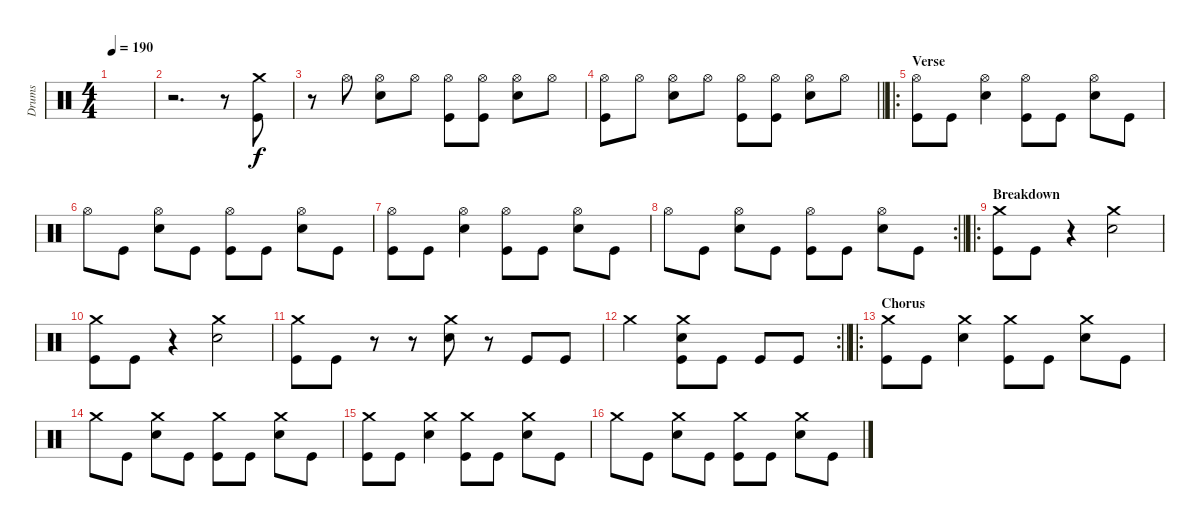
\track ("Drums" "Drums") {instrument percussion}
\staff {score}
\articulation defaults
\ts (4 4)
\tempo 190
\clef neutral
\ks c
|
r.2{d} r.8 ("Crash medium (hit)" "Kick (hit)").8 |
r.8 "Hi-Hat (open)".8 ("Hi-Hat (open)" "Snare (hit) 2").8 "Hi-Hat (open)".8 ("Hi-Hat (open)" "Kick (hit)").8 ("Hi-Hat (open)" "Kick (hit)").8 ("Hi-Hat (open)" "Snare (hit) 2").8 "Hi-Hat (open)".8 |
\barLineRight lightlight
("Hi-Hat (open)" "Kick (hit)").8 "Hi-Hat (open)".8 ("Hi-Hat (open)" "Snare (hit) 2").8 "Hi-Hat (open)".8 ("Hi-Hat (open)" "Kick (hit)").8 ("Hi-Hat (open)" "Kick (hit)").8 ("Hi-Hat (open)" "Snare (hit) 2").8 "Hi-Hat (open)".8 |
\ro
\section ("" "Verse")
("Hi-Hat (open)" "Kick (hit)").8 "Kick (hit)".8 ("Hi-Hat (open)" "Snare (hit) 2").4 ("Hi-Hat (open)" "Kick (hit)").8 "Kick (hit)".8 ("Hi-Hat (open)" "Snare (hit) 2").8 "Kick (hit)".8 |
"Hi-Hat (open)".8 "Kick (hit)".8 ("Hi-Hat (open)" "Snare (hit) 2").8 "Kick (hit)".8 ("Hi-Hat (open)" "Kick (hit)").8 "Kick (hit)".8 ("Hi-Hat (open)" "Snare (hit) 2").8 "Kick (hit)".8 |
("Hi-Hat (open)" "Kick (hit)").8 "Kick (hit)".8 ("Hi-Hat (open)" "Snare (hit) 2").4 ("Hi-Hat (open)" "Kick (hit)").8 "Kick (hit)".8 ("Hi-Hat (open)" "Snare (hit) 2").8 "Kick (hit)".8 |
\rc 2
\barLineRight lightlight "Hi-Hat (open)".8 "Kick (hit)".8
("Hi-Hat (open)" "Snare (hit) 2").8 "Kick (hit)".8 ("Hi-Hat (open)" "Kick (hit)").8 "Kick (hit)".8 ("Hi-Hat (open)" "Snare (hit) 2").8 "Kick (hit)".8 |
\ro
\section ("" "Breakdown")
("Crash medium (hit)" "Kick (hit)").8 "Kick (hit)".8 r.4 ("Crash medium (hit)" "Snare (hit) 2").2 |
("Crash medium (hit)" "Kick (hit)").8 "Kick (hit)".8 r.4 ("Crash medium (hit)" "Snare (hit) 2").2 |
("Crash medium (hit)" "Kick (hit)").8 "Kick (hit)".8 r.8 r.8 ("Crash medium (hit)" "Snare (hit) 2").8 r.8 "Kick (hit)".8 "Kick (hit)".8 |
\rc 2
\barLineRight lightlight "Crash medium (hit)".2
("Crash medium (hit)" "Snare (hit) 2" "Kick (hit)").8 "Kick (hit)".8 "Kick (hit)".8 "Kick (hit)".8 |
\ro
\section ("" "Chorus")
("Crash medium (hit)" "Kick (hit)").8 "Kick (hit)".8 ("Crash medium (hit)" "Snare (hit) 2").4 ("Crash medium (hit)" "Kick (hit)").8 "Kick (hit)".8 ("Crash medium (hit)" "Snare (hit) 2").8 "Kick (hit)".8 |
"Crash medium (hit)".8 "Kick (hit)".8 ("Crash medium (hit)" "Snare (hit) 2").8 "Kick (hit)".8 ("Crash medium (hit)" "Kick (hit)").8 "Kick (hit)".8 ("Crash medium (hit)" "Snare (hit) 2").8 "Kick (hit)".8 |
("Crash medium (hit)" "Kick (hit)").8 "Kick (hit)".8 ("Crash medium (hit)" "Snare (hit) 2").4 ("Crash medium (hit)" "Kick (hit)").8 "Kick (hit)".8 ("Crash medium (hit)" "Snare (hit) 2").8 "Kick (hit)".8 |
"Crash medium (hit)".8 "Kick (hit)".8 ("Crash medium (hit)" "Snare (hit) 2").8 "Kick (hit)".8 ("Crash medium (hit)" "Kick (hit)").8 "Kick (hit)".8 ("Crash medium (hit)" "Snare (hit) 2").8 "Kick (hit)".8
